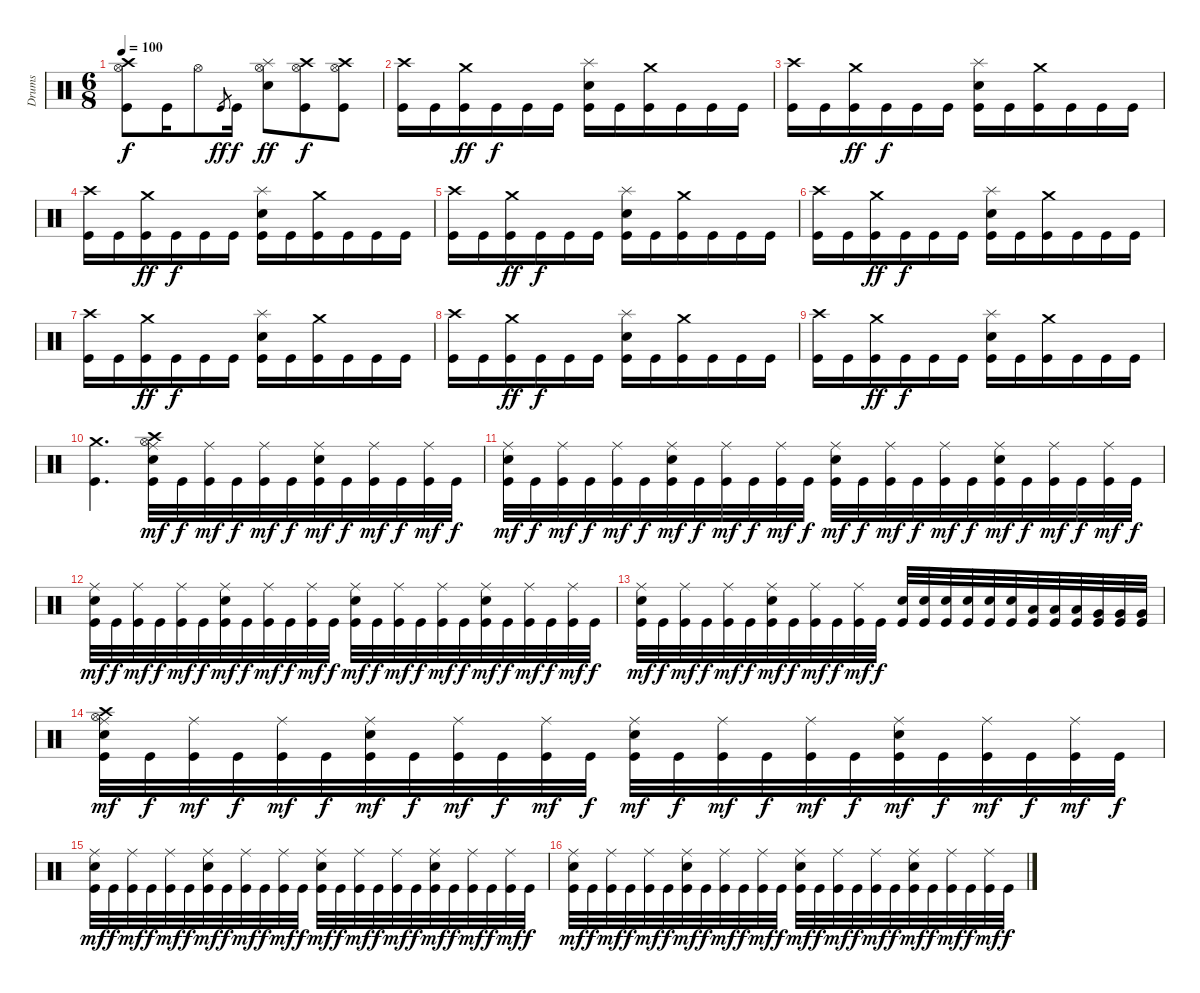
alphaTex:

\track ("Drums" "Drums") {instrument percussion}
\staff {score}
\articulation defaults
\ts (6 8)
\tempo 100
\clef neutral
\ks c
("Crash high (hit)" "Hi-Hat (open)" "Kick (hit)").8{dy f} "Kick (hit)".16 "Hi-Hat (open)".8 "Kick (hit)".8{gr dy ff} "Kick (hit)".16{dy f} ("Splash (hit)" "Hi-Hat (open)" "Electric Snare (hit)").8{dy ff} ("Crash high (hit)" "Hi-Hat (open)" "Kick (hit)").8{dy f} ("Crash high (hit)" "Hi-Hat (open)" "Kick (hit)").8 |
("Crash high (hit)" "Kick (hit)").16 "Kick (hit)".16 ("Crash medium (hit)" "Kick (hit)").16{dy ff} "Kick (hit)".16{dy f} "Kick (hit)".16 "Kick (hit)".16 ("Splash (hit)" "Electric Snare (hit)" "Kick (hit)").16 "Kick (hit)".16 ("Crash medium (hit)" "Kick (hit)").16 "Kick (hit)".16 "Kick (hit)".16 "Kick (hit)".16 |
("Crash high (hit)" "Kick (hit)").16 "Kick (hit)".16 ("Crash medium (hit)" "Kick (hit)").16{dy ff} "Kick (hit)".16{dy f} "Kick (hit)".16 "Kick (hit)".16 ("Splash (hit)" "Electric Snare (hit)" "Kick (hit)").16 "Kick (hit)".16 ("Crash medium (hit)" "Kick (hit)").16 "Kick (hit)".16 "Kick (hit)".16 "Kick (hit)".16 |
("Crash high (hit)" "Kick (hit)").16 "Kick (hit)".16 ("Crash medium (hit)" "Kick (hit)").16{dy ff} "Kick (hit)".16{dy f} "Kick (hit)".16 "Kick (hit)".16 ("Splash (hit)" "Electric Snare (hit)" "Kick (hit)").16 "Kick (hit)".16 ("Crash medium (hit)" "Kick (hit)").16 "Kick (hit)".16 "Kick (hit)".16 "Kick (hit)".16 |
("Crash high (hit)" "Kick (hit)").16 "Kick (hit)".16 ("Crash medium (hit)" "Kick (hit)").16{dy ff} "Kick (hit)".16{dy f} "Kick (hit)".16 "Kick (hit)".16 ("Splash (hit)" "Electric Snare (hit)" "Kick (hit)").16 "Kick (hit)".16 ("Crash medium (hit)" "Kick (hit)").16 "Kick (hit)".16 "Kick (hit)".16 "Kick (hit)".16 |
("Crash high (hit)" "Kick (hit)").16 "Kick (hit)".16 ("Crash medium (hit)" "Kick (hit)").16{dy ff} "Kick (hit)".16{dy f} "Kick (hit)".16 "Kick (hit)".16 ("Splash (hit)" "Electric Snare (hit)" "Kick (hit)").16 "Kick (hit)".16 ("Crash medium (hit)" "Kick (hit)").16 "Kick (hit)".16 "Kick (hit)".16 "Kick (hit)".16 |
("Crash high (hit)" "Kick (hit)").16 "Kick (hit)".16 ("Crash medium (hit)" "Kick (hit)").16{dy ff} "Kick (hit)".16{dy f} "Kick (hit)".16 "Kick (hit)".16 ("Splash (hit)" "Electric Snare (hit)" "Kick (hit)").16 "Kick (hit)".16 ("Crash medium (hit)" "Kick (hit)").16 "Kick (hit)".16 "Kick (hit)".16 "Kick (hit)".16 |
("Crash high (hit)" "Kick (hit)").16 "Kick (hit)".16 ("Crash medium (hit)" "Kick (hit)").16{dy ff} "Kick (hit)".16{dy f} "Kick (hit)".16 "Kick (hit)".16 ("Splash (hit)" "Electric Snare (hit)" "Kick (hit)").16 "Kick (hit)".16 ("Crash medium (hit)" "Kick (hit)").16 "Kick (hit)".16 "Kick (hit)".16 "Kick (hit)".16 |
("Crash high (hit)" "Kick (hit)").16 "Kick (hit)".16 ("Crash medium (hit)" "Kick (hit)").16{dy ff} "Kick (hit)".16{dy f} "Kick (hit)".16 "Kick (hit)".16 ("Splash (hit)" "Electric Snare (hit)" "Kick (hit)").16 "Kick (hit)".16 ("Crash medium (hit)" "Kick (hit)").16 "Kick (hit)".16 "Kick (hit)".16 "Kick (hit)".16 |
("Crash medium (hit)" "Kick (hit)").4{d} ("Hi-Hat (open)" "Crash high (hit)" "Ride (middle)" "Electric Snare (hit)" "Kick (hit)").32{dy mf} "Kick (hit)".32{dy f} ("Ride (middle)" "Kick (hit)").32{dy mf} "Kick (hit)".32{dy f} ("Ride (middle)" "Kick (hit)").32{dy mf} "Kick (hit)".32{dy f} ("Ride (middle)" "Electric Snare (hit)" "Kick (hit)").32{dy mf} "Kick (hit)".32{dy f} ("Ride (middle)" "Kick (hit)").32{dy mf} "Kick (hit)".32{dy f} ("Ride (middle)" "Kick (hit)").32{dy mf} "Kick (hit)".32{dy f} |
("Ride (middle)" "Electric Snare (hit)" "Kick (hit)").32{dy mf} "Kick (hit)".32{dy f} ("Ride (middle)" "Kick (hit)").32{dy mf} "Kick (hit)".32{dy f} ("Ride (middle)" "Kick (hit)").32{dy mf} "Kick (hit)".32{dy f} ("Ride (middle)" "Electric Snare (hit)" "Kick (hit)").32{dy mf} "Kick (hit)".32{dy f} ("Ride (middle)" "Kick (hit)").32{dy mf} "Kick (hit)".32{dy f} ("Ride (middle)" "Kick (hit)").32{dy mf} "Kick (hit)".32{dy f} ("Ride (middle)" "Electric Snare (hit)" "Kick (hit)").32{dy mf} "Kick (hit)".32{dy f} ("Ride (middle)" "Kick (hit)").32{dy mf} "Kick (hit)".32{dy f} ("Ride (middle)" "Kick (hit)").32{dy mf} "Kick (hit)".32{dy f} ("Ride (middle)" "Electric Snare (hit)" "Kick (hit)").32{dy mf} "Kick (hit)".32{dy f} ("Ride (middle)" "Kick (hit)").32{dy mf} "Kick (hit)".32{dy f} ("Ride (middle)" "Kick (hit)").32{dy mf} "Kick (hit)".32{dy f} |
("Ride (middle)" "Electric Snare (hit)" "Kick (hit)").32{dy mf} "Kick (hit)".32{dy f} ("Ride (middle)" "Kick (hit)").32{dy mf} "Kick (hit)".32{dy f} ("Ride (middle)" "Kick (hit)").32{dy mf} "Kick (hit)".32{dy f} ("Ride (middle)" "Electric Snare (hit)" "Kick (hit)").32{dy mf} "Kick (hit)".32{dy f} ("Ride (middle)" "Kick (hit)").32{dy mf} "Kick (hit)".32{dy f} ("Ride (middle)" "Kick (hit)").32{dy mf} "Kick (hit)".32{dy f} ("Ride (middle)" "Electric Snare (hit)" "Kick (hit)").32{dy mf} "Kick (hit)".32{dy f} ("Ride (middle)" "Kick (hit)").32{dy mf} "Kick (hit)".32{dy f} ("Ride (middle)" "Kick (hit)").32{dy mf} "Kick (hit)".32{dy f} ("Ride (middle)" "Electric Snare (hit)" "Kick (hit)").32{dy mf} "Kick (hit)".32{dy f} ("Ride (middle)" "Kick (hit)").32{dy mf} "Kick (hit)".32{dy f} ("Ride (middle)" "Kick (hit)").32{dy mf} "Kick (hit)".32{dy f} |
("Ride (middle)" "Electric Snare (hit)" "Kick (hit)").32{dy mf} "Kick (hit)".32{dy f} ("Ride (middle)" "Kick (hit)").32{dy mf} "Kick (hit)".32{dy f} ("Ride (middle)" "Kick (hit)").32{dy mf} "Kick (hit)".32{dy f} ("Ride (middle)" "Electric Snare (hit)" "Kick (hit)").32{dy mf} "Kick (hit)".32{dy f} ("Ride (middle)" "Kick (hit)").32{dy mf} "Kick (hit)".32{dy f} ("Ride (middle)" "Kick (hit)").32{dy mf} "Kick (hit)".32{dy f} ("Electric Snare (hit)" "Kick (hit)").32 ("Electric Snare (hit)" "Kick (hit)").32 ("Electric Snare (hit)" "Kick (hit)").32 ("Electric Snare (hit)" "Kick (hit)").32 ("Electric Snare (hit)" "Kick (hit)").32 ("Electric Snare (hit)" "Kick (hit)").32 ("Low Tom (hit)" "Kick (hit)").32 ("Low Tom (hit)" "Kick (hit)").32 ("Low Tom (hit)" "Kick (hit)").32 ("Very Low Tom (hit)" "Kick (hit)").32 ("Very Low Tom (hit)" "Kick (hit)").32 ("Very Low Tom (hit)" "Kick (hit)").32 |
("Crash high (hit)" "Hi-Hat (open)" "Ride (middle)" "Electric Snare (hit)" "Kick (hit)").32{dy mf} "Kick (hit)".32{dy f} ("Ride (middle)" "Kick (hit)").32{dy mf} "Kick (hit)".32{dy f} ("Ride (middle)" "Kick (hit)").32{dy mf} "Kick (hit)".32{dy f} ("Ride (middle)" "Electric Snare (hit)" "Kick (hit)").32{dy mf} "Kick (hit)".32{dy f} ("Ride (middle)" "Kick (hit)").32{dy mf} "Kick (hit)".32{dy f} ("Ride (middle)" "Kick (hit)").32{dy mf} "Kick (hit)".32{dy f} ("Ride (middle)" "Electric Snare (hit)" "Kick (hit)").32{dy mf} "Kick (hit)".32{dy f} ("Ride (middle)" "Kick (hit)").32{dy mf} "Kick (hit)".32{dy f} ("Ride (middle)" "Kick (hit)").32{dy mf} "Kick (hit)".32{dy f} ("Ride (middle)" "Electric Snare (hit)" "Kick (hit)").32{dy mf} "Kick (hit)".32{dy f} ("Ride (middle)" "Kick (hit)").32{dy mf} "Kick (hit)".32{dy f} ("Ride (middle)" "Kick (hit)").32{dy mf} "Kick (hit)".32{dy f} |
("Ride (middle)" "Electric Snare (hit)" "Kick (hit)").32{dy mf} "Kick (hit)".32{dy f} ("Ride (middle)" "Kick (hit)").32{dy mf} "Kick (hit)".32{dy f} ("Ride (middle)" "Kick (hit)").32{dy mf} "Kick (hit)".32{dy f} ("Ride (middle)" "Electric Snare (hit)" "Kick (hit)").32{dy mf} "Kick (hit)".32{dy f} ("Ride (middle)" "Kick (hit)").32{dy mf} "Kick (hit)".32{dy f} ("Ride (middle)" "Kick (hit)").32{dy mf} "Kick (hit)".32{dy f} ("Ride (middle)" "Electric Snare (hit)" "Kick (hit)").32{dy mf} "Kick (hit)".32{dy f} ("Ride (middle)" "Kick (hit)").32{dy mf} "Kick (hit)".32{dy f} ("Ride (middle)" "Kick (hit)").32{dy mf} "Kick (hit)".32{dy f} ("Ride (middle)" "Electric Snare (hit)" "Kick (hit)").32{dy mf} "Kick (hit)".32{dy f} ("Ride (middle)" "Kick (hit)").32{dy mf} "Kick (hit)".32{dy f} ("Ride (middle)" "Kick (hit)").32{dy mf} "Kick (hit)".32{dy f} |
("Ride (middle)" "Electric Snare (hit)" "Kick (hit)").32{dy mf} "Kick (hit)".32{dy f} ("Ride (middle)" "Kick (hit)").32{dy mf} "Kick (hit)".32{dy f} ("Ride (middle)" "Kick (hit)").32{dy mf} "Kick (hit)".32{dy f} ("Ride (middle)" "Electric Snare (hit)" "Kick (hit)").32{dy mf} "Kick (hit)".32{dy f} ("Ride (middle)" "Kick (hit)").32{dy mf} "Kick (hit)".32{dy f} ("Ride (middle)" "Kick (hit)").32{dy mf} "Kick (hit)".32{dy f} ("Ride (middle)" "Electric Snare (hit)" "Kick (hit)").32{dy mf} "Kick (hit)".32{dy f} ("Ride (middle)" "Kick (hit)").32{dy mf} "Kick (hit)".32{dy f} ("Ride (middle)" "Kick (hit)").32{dy mf} "Kick (hit)".32{dy f} ("Ride (middle)" "Electric Snare (hit)" "Kick (hit)").32{dy mf} "Kick (hit)".32{dy f} ("Ride (middle)" "Kick (hit)").32{dy mf} "Kick (hit)".32{dy f} ("Ride (middle)" "Kick (hit)").32{dy mf} "Kick (hit)".32{dy f}
